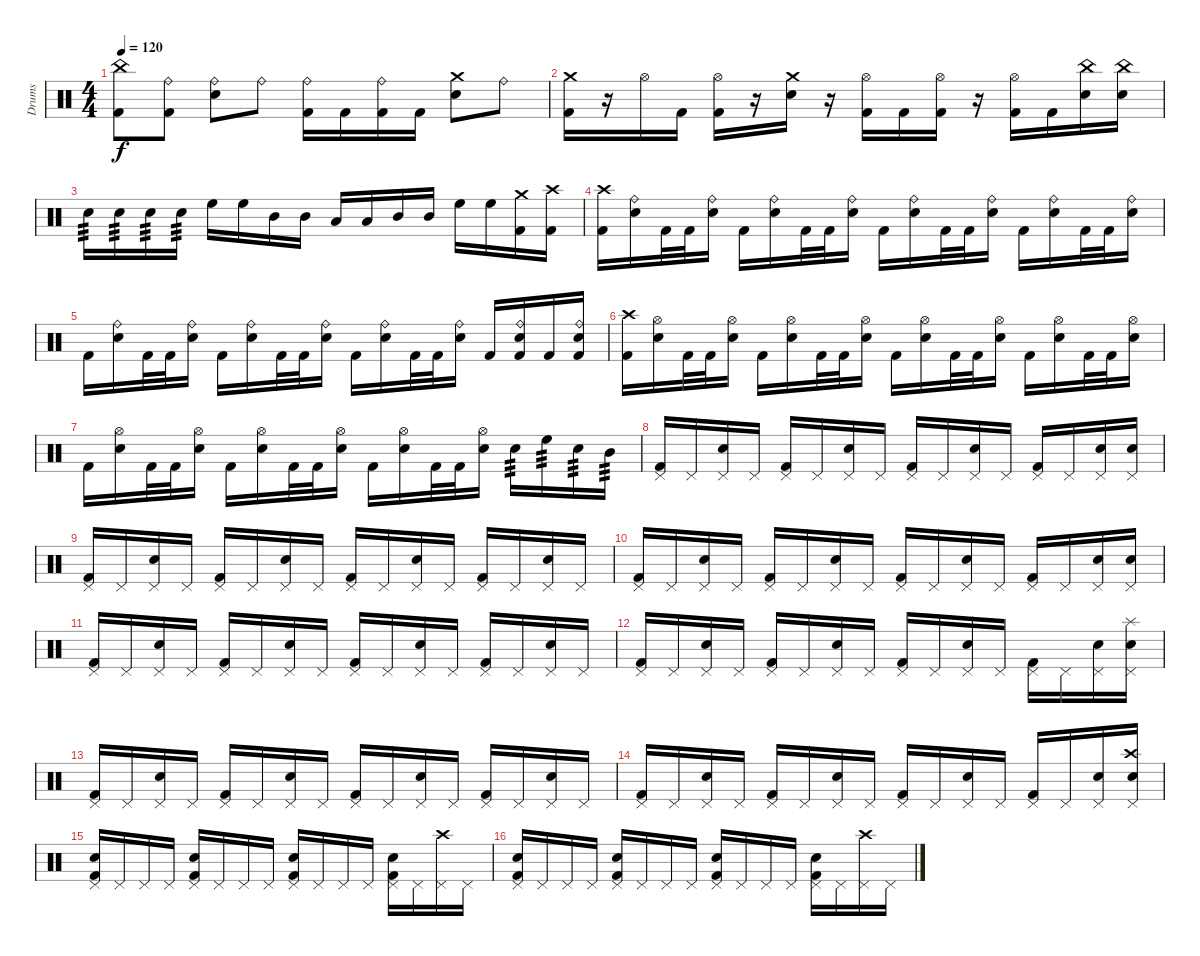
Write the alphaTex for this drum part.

\track ("Drums" "Drums") {instrument percussion}
\staff {score}
\articulation defaults
\ts (4 4)
\tempo 120
\clef neutral
\ks c
("China (hit)" "Kick (hit) 2").8{dy f} ("Ride (bell)" "Kick (hit) 2").8 ("Ride (bell)" "Electric Snare (hit)").8 "Ride (bell)".8 ("Ride (bell)" "Kick (hit) 2").16 "Kick (hit) 2".16 ("Ride (bell)" "Kick (hit) 2").16 "Kick (hit) 2".16 ("Crash medium (hit)" "Electric Snare (hit)").8 "Ride (bell)".8 |
("Crash medium (hit)" "Kick (hit) 2").16 r.16 "Hi-Hat (open)".16 "Kick (hit) 2".16 ("Hi-Hat (open)" "Kick (hit) 2").16 r.16 ("Crash medium (hit)" "Electric Snare (hit)").16 r.16 ("Hi-Hat (open)" "Kick (hit) 2").16 "Kick (hit) 2".16 ("Hi-Hat (open)" "Kick (hit) 2").16 r.16 ("Hi-Hat (open)" "Kick (hit) 2").16 "Kick (hit) 2".16 ("China (hit)" "Electric Snare (hit)").16 ("China (hit)" "Electric Snare (hit)").16 |
"Electric Snare (hit)".16{tp 3} "Electric Snare (hit)".16{tp 3} "Electric Snare (hit)".16{tp 3} "Electric Snare (hit)".16{tp 3} "High Floor Tom (hit)".16 "High Floor Tom (hit)".16 "Mid Tom (hit)".16 "Mid Tom (hit)".16 "Low Tom (hit)".16 "Low Tom (hit)".16 "Mid Tom (hit)".16 "Mid Tom (hit)".16 "High Floor Tom (hit)".16 "High Floor Tom (hit)".16 ("Crash medium (hit)" "Kick (hit) 2").16 ("Crash high (hit)" "Kick (hit) 2").16 |
("Crash high (hit)" "Kick (hit) 2").16 ("Ride (bell)" "Electric Snare (hit)").16 "Kick (hit) 2".32 "Kick (hit) 2".32 ("Ride (bell)" "Electric Snare (hit)").16 "Kick (hit) 2".16 ("Ride (bell)" "Electric Snare (hit)").16 "Kick (hit) 2".32 "Kick (hit) 2".32 ("Ride (bell)" "Electric Snare (hit)").16 "Kick (hit) 2".16 ("Ride (bell)" "Electric Snare (hit)").16 "Kick (hit) 2".32 "Kick (hit) 2".32 ("Ride (bell)" "Electric Snare (hit)").16 "Kick (hit) 2".16 ("Ride (bell)" "Electric Snare (hit)").16 "Kick (hit) 2".32 "Kick (hit) 2".32 ("Ride (bell)" "Electric Snare (hit)").16 |
"Kick (hit) 2".16 ("Ride (bell)" "Electric Snare (hit)").16 "Kick (hit) 2".32 "Kick (hit) 2".32 ("Ride (bell)" "Electric Snare (hit)").16 "Kick (hit) 2".16 ("Ride (bell)" "Electric Snare (hit)").16 "Kick (hit) 2".32 "Kick (hit) 2".32 ("Ride (bell)" "Electric Snare (hit)").16 "Kick (hit) 2".16 ("Ride (bell)" "Electric Snare (hit)").16 "Kick (hit) 2".32 "Kick (hit) 2".32 ("Ride (bell)" "Electric Snare (hit)").16 "Kick (hit) 2".16 ("Ride (bell)" "Electric Snare (hit)" "Kick (hit) 2").16 "Kick (hit) 2".16 ("Ride (bell)" "Electric Snare (hit)" "Kick (hit) 2").16 |
("Crash high (hit)" "Kick (hit) 2").16 ("Hi-Hat (open)" "Electric Snare (hit)").16 "Kick (hit) 2".32 "Kick (hit) 2".32 ("Hi-Hat (open)" "Electric Snare (hit)").16 "Kick (hit) 2".16 ("Hi-Hat (open)" "Electric Snare (hit)").16 "Kick (hit) 2".32 "Kick (hit) 2".32 ("Hi-Hat (open)" "Electric Snare (hit)").16 "Kick (hit) 2".16 ("Hi-Hat (open)" "Electric Snare (hit)").16 "Kick (hit) 2".32 "Kick (hit) 2".32 ("Hi-Hat (open)" "Electric Snare (hit)").16 "Kick (hit) 2".16 ("Hi-Hat (open)" "Electric Snare (hit)").16 "Kick (hit) 2".32 "Kick (hit) 2".32 ("Hi-Hat (open)" "Electric Snare (hit)").16 |
"Kick (hit) 2".16 ("Hi-Hat (open)" "Electric Snare (hit)").16 "Kick (hit) 2".32 "Kick (hit) 2".32 ("Hi-Hat (open)" "Electric Snare (hit)").16 "Kick (hit) 2".16 ("Hi-Hat (open)" "Electric Snare (hit)").16 "Kick (hit) 2".32 "Kick (hit) 2".32 ("Hi-Hat (open)" "Electric Snare (hit)").16 "Kick (hit) 2".16 ("Hi-Hat (open)" "Electric Snare (hit)").16 "Kick (hit) 2".32 "Kick (hit) 2".32 ("Hi-Hat (open)" "Electric Snare (hit)").16 "Electric Snare (hit)".16{tp 3} "High Floor Tom (hit)".16{tp 3} "Electric Snare (hit)".16{tp 3} "Mid Tom (hit)".16{tp 3} |
("Pedal Hi-Hat (hit)" "Kick (hit) 2").16 "Pedal Hi-Hat (hit)".16 ("Pedal Hi-Hat (hit)" "Electric Snare (hit)").16 "Pedal Hi-Hat (hit)".16 ("Pedal Hi-Hat (hit)" "Kick (hit) 2").16 "Pedal Hi-Hat (hit)".16 ("Pedal Hi-Hat (hit)" "Electric Snare (hit)").16 "Pedal Hi-Hat (hit)".16 ("Pedal Hi-Hat (hit)" "Kick (hit) 2").16 "Pedal Hi-Hat (hit)".16 ("Pedal Hi-Hat (hit)" "Electric Snare (hit)").16 "Pedal Hi-Hat (hit)".16 ("Pedal Hi-Hat (hit)" "Kick (hit) 2").16 "Pedal Hi-Hat (hit)".16 ("Pedal Hi-Hat (hit)" "Electric Snare (hit)").16 ("Pedal Hi-Hat (hit)" "Electric Snare (hit)").16 |
("Pedal Hi-Hat (hit)" "Kick (hit) 2").16 "Pedal Hi-Hat (hit)".16 ("Pedal Hi-Hat (hit)" "Electric Snare (hit)").16 "Pedal Hi-Hat (hit)".16 ("Pedal Hi-Hat (hit)" "Kick (hit) 2").16 "Pedal Hi-Hat (hit)".16 ("Pedal Hi-Hat (hit)" "Electric Snare (hit)").16 "Pedal Hi-Hat (hit)".16 ("Pedal Hi-Hat (hit)" "Kick (hit) 2").16 "Pedal Hi-Hat (hit)".16 ("Pedal Hi-Hat (hit)" "Electric Snare (hit)").16 "Pedal Hi-Hat (hit)".16 ("Pedal Hi-Hat (hit)" "Kick (hit) 2").16 "Pedal Hi-Hat (hit)".16 ("Pedal Hi-Hat (hit)" "Electric Snare (hit)").16 "Pedal Hi-Hat (hit)".16 |
("Pedal Hi-Hat (hit)" "Kick (hit) 2").16 "Pedal Hi-Hat (hit)".16 ("Pedal Hi-Hat (hit)" "Electric Snare (hit)").16 "Pedal Hi-Hat (hit)".16 ("Pedal Hi-Hat (hit)" "Kick (hit) 2").16 "Pedal Hi-Hat (hit)".16 ("Pedal Hi-Hat (hit)" "Electric Snare (hit)").16 "Pedal Hi-Hat (hit)".16 ("Pedal Hi-Hat (hit)" "Kick (hit) 2").16 "Pedal Hi-Hat (hit)".16 ("Pedal Hi-Hat (hit)" "Electric Snare (hit)").16 "Pedal Hi-Hat (hit)".16 ("Pedal Hi-Hat (hit)" "Kick (hit) 2").16 "Pedal Hi-Hat (hit)".16 ("Pedal Hi-Hat (hit)" "Electric Snare (hit)").16 ("Pedal Hi-Hat (hit)" "Electric Snare (hit)").16 |
("Pedal Hi-Hat (hit)" "Kick (hit) 2").16 "Pedal Hi-Hat (hit)".16 ("Pedal Hi-Hat (hit)" "Electric Snare (hit)").16 "Pedal Hi-Hat (hit)".16 ("Pedal Hi-Hat (hit)" "Kick (hit) 2").16 "Pedal Hi-Hat (hit)".16 ("Pedal Hi-Hat (hit)" "Electric Snare (hit)").16 "Pedal Hi-Hat (hit)".16 ("Pedal Hi-Hat (hit)" "Kick (hit) 2").16 "Pedal Hi-Hat (hit)".16 ("Pedal Hi-Hat (hit)" "Electric Snare (hit)").16 "Pedal Hi-Hat (hit)".16 ("Pedal Hi-Hat (hit)" "Kick (hit) 2").16 "Pedal Hi-Hat (hit)".16 ("Pedal Hi-Hat (hit)" "Electric Snare (hit)").16 "Pedal Hi-Hat (hit)".16 |
("Pedal Hi-Hat (hit)" "Kick (hit) 2").16 "Pedal Hi-Hat (hit)".16 ("Pedal Hi-Hat (hit)" "Electric Snare (hit)").16 "Pedal Hi-Hat (hit)".16 ("Pedal Hi-Hat (hit)" "Kick (hit) 2").16 "Pedal Hi-Hat (hit)".16 ("Pedal Hi-Hat (hit)" "Electric Snare (hit)").16 "Pedal Hi-Hat (hit)".16 ("Pedal Hi-Hat (hit)" "Kick (hit) 2").16 "Pedal Hi-Hat (hit)".16 ("Pedal Hi-Hat (hit)" "Electric Snare (hit)").16 "Pedal Hi-Hat (hit)".16 ("Pedal Hi-Hat (hit)" "Kick (hit) 2").16 "Pedal Hi-Hat (hit)".16 ("Pedal Hi-Hat (hit)" "Electric Snare (hit)").16 ("Splash (hit)" "Pedal Hi-Hat (hit)" "Electric Snare (hit)").16 |
("Pedal Hi-Hat (hit)" "Kick (hit) 2").16 "Pedal Hi-Hat (hit)".16 ("Pedal Hi-Hat (hit)" "Electric Snare (hit)").16 "Pedal Hi-Hat (hit)".16 ("Pedal Hi-Hat (hit)" "Kick (hit) 2").16 "Pedal Hi-Hat (hit)".16 ("Pedal Hi-Hat (hit)" "Electric Snare (hit)").16 "Pedal Hi-Hat (hit)".16 ("Pedal Hi-Hat (hit)" "Kick (hit) 2").16 "Pedal Hi-Hat (hit)".16 ("Pedal Hi-Hat (hit)" "Electric Snare (hit)").16 "Pedal Hi-Hat (hit)".16 ("Pedal Hi-Hat (hit)" "Kick (hit) 2").16 "Pedal Hi-Hat (hit)".16 ("Pedal Hi-Hat (hit)" "Electric Snare (hit)").16 "Pedal Hi-Hat (hit)".16 |
("Pedal Hi-Hat (hit)" "Kick (hit) 2").16 "Pedal Hi-Hat (hit)".16 ("Pedal Hi-Hat (hit)" "Electric Snare (hit)").16 "Pedal Hi-Hat (hit)".16 ("Pedal Hi-Hat (hit)" "Kick (hit) 2").16 "Pedal Hi-Hat (hit)".16 ("Pedal Hi-Hat (hit)" "Electric Snare (hit)").16 "Pedal Hi-Hat (hit)".16 ("Pedal Hi-Hat (hit)" "Kick (hit) 2").16 "Pedal Hi-Hat (hit)".16 ("Pedal Hi-Hat (hit)" "Electric Snare (hit)").16 "Pedal Hi-Hat (hit)".16 ("Pedal Hi-Hat (hit)" "Kick (hit) 2").16 "Pedal Hi-Hat (hit)".16 ("Pedal Hi-Hat (hit)" "Electric Snare (hit)").16 ("Crash high (hit)" "Pedal Hi-Hat (hit)" "Electric Snare (hit)").16 |
("Pedal Hi-Hat (hit)" "Electric Snare (hit)" "Kick (hit) 2").16 "Pedal Hi-Hat (hit)".16 "Pedal Hi-Hat (hit)".16 "Pedal Hi-Hat (hit)".16 ("Pedal Hi-Hat (hit)" "Electric Snare (hit)" "Kick (hit) 2").16 "Pedal Hi-Hat (hit)".16 "Pedal Hi-Hat (hit)".16 "Pedal Hi-Hat (hit)".16 ("Pedal Hi-Hat (hit)" "Electric Snare (hit)" "Kick (hit) 2").16 "Pedal Hi-Hat (hit)".16 "Pedal Hi-Hat (hit)".16 "Pedal Hi-Hat (hit)".16 ("Pedal Hi-Hat (hit)" "Electric Snare (hit)" "Kick (hit) 2").16 "Pedal Hi-Hat (hit)".16 ("Crash high (hit)" "Pedal Hi-Hat (hit)").16 "Pedal Hi-Hat (hit)".16 |
("Pedal Hi-Hat (hit)" "Electric Snare (hit)" "Kick (hit) 2").16 "Pedal Hi-Hat (hit)".16 "Pedal Hi-Hat (hit)".16 "Pedal Hi-Hat (hit)".16 ("Pedal Hi-Hat (hit)" "Electric Snare (hit)" "Kick (hit) 2").16 "Pedal Hi-Hat (hit)".16 "Pedal Hi-Hat (hit)".16 "Pedal Hi-Hat (hit)".16 ("Pedal Hi-Hat (hit)" "Electric Snare (hit)" "Kick (hit) 2").16 "Pedal Hi-Hat (hit)".16 "Pedal Hi-Hat (hit)".16 "Pedal Hi-Hat (hit)".16 ("Pedal Hi-Hat (hit)" "Electric Snare (hit)" "Kick (hit) 2").16 "Pedal Hi-Hat (hit)".16 ("Crash high (hit)" "Pedal Hi-Hat (hit)").16 "Pedal Hi-Hat (hit)".16
